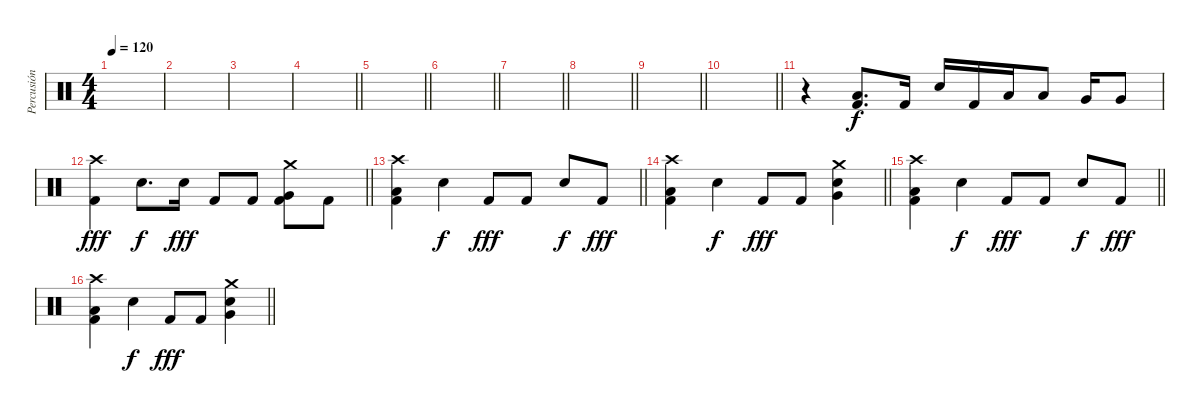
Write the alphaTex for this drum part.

\track ("Percusión" "Percusión") {instrument percussion}
\staff {score}
\articulation defaults
\ts (4 4)
\tempo 120
\clef neutral
\ks c
|
|
|
\barLineRight lightlight
|
\barLineRight lightlight
|
\barLineRight lightlight
|
\barLineRight lightlight
|
\barLineRight lightlight
|
\barLineRight lightlight
|
\barLineRight lightlight
|
r.4 ("Low Floor Tom (hit)" "Kick (hit) 2").8{d} "Kick (hit) 2".16{dy f} "Electric Snare (hit)".16 "Kick (hit) 2".16 "Low Tom (hit)".16 "Low Tom (hit)".8 "Very Low Tom (hit)".16 "Very Low Tom (hit)".8 |
\barLineRight lightlight
("Crash high (hit)" "Kick (hit) 2").4{dy fff} "Electric Snare (hit)".8{d dy f} "Electric Snare (hit)".16{dy fff} "Kick (hit) 2".8 "Kick (hit) 2".8 ("Crash medium (hit)" "Very Low Tom (hit)" "Kick (hit) 2").8 "Kick (hit) 2".8 |
\barLineRight lightlight
("Crash high (hit)" "Low Floor Tom (hit)" "Kick (hit) 2").4 "Electric Snare (hit)".4{dy f} "Kick (hit) 2".8{dy fff} "Kick (hit) 2".8 "Electric Snare (hit)".8{dy f} "Kick (hit) 2".8{dy fff} |
\barLineRight lightlight
("Crash high (hit)" "Low Floor Tom (hit)" "Kick (hit) 2").4 "Electric Snare (hit)".4{dy f} "Kick (hit) 2".8{dy fff} "Kick (hit) 2".8 ("Crash medium (hit)" "Electric Snare (hit)" "Very Low Tom (hit)").4 |
\barLineRight lightlight
("Crash high (hit)" "Low Floor Tom (hit)" "Kick (hit) 2").4 "Electric Snare (hit)".4{dy f} "Kick (hit) 2".8{dy fff} "Kick (hit) 2".8 "Electric Snare (hit)".8{dy f} "Kick (hit) 2".8{dy fff} |
\barLineRight lightlight
("Crash high (hit)" "Low Floor Tom (hit)" "Kick (hit) 2").4 "Electric Snare (hit)".4{dy f} "Kick (hit) 2".8{dy fff} "Kick (hit) 2".8 ("Crash medium (hit)" "Electric Snare (hit)" "Very Low Tom (hit)").4
